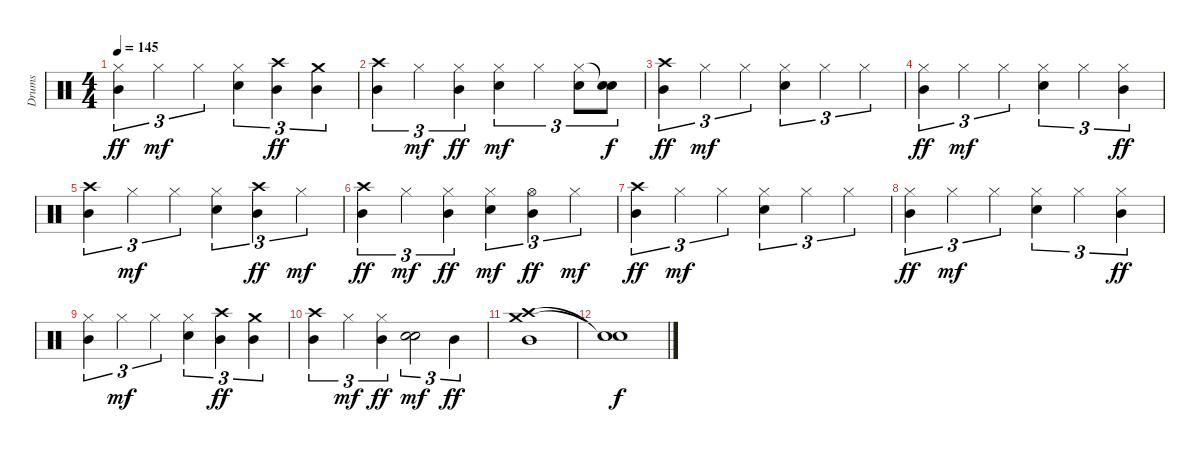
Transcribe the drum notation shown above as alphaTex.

\track ("Drums" "Drums") {instrument percussion}
\staff {score}
\articulation defaults
\ts (4 4)
\tempo 145
\clef neutral
\ks c
("Hi-Hat (closed)" "Mid Tom (hit)").4{tu (3 2) dy ff} "Hi-Hat (closed)".4{tu (3 2) dy mf} "Hi-Hat (closed)".4{tu (3 2)} ("Hi-Hat (closed)" "Electric Snare (hit)").4{tu (3 2)} ("Crash high (hit)" "Mid Tom (hit)").4{tu (3 2) dy ff} ("Crash medium (hit)" "Mid Tom (hit)").4{tu (3 2)} |
("Crash high (hit)" "Mid Tom (hit)").4{tu (3 2)} "Hi-Hat (closed)".4{tu (3 2) dy mf} ("Hi-Hat (closed)" "Mid Tom (hit)").4{tu (3 2) dy ff} ("Hi-Hat (closed)" "Electric Snare (hit)").4{tu (3 2) dy mf} "Hi-Hat (closed)".4{tu (3 2)} ("Hi-Hat (closed)" "Electric Snare (hit)").8{tu (3 2)} ("Snare (hit)"{t} "Electric Snare (hit)").8{tu (3 2) dy f} |
("Crash high (hit)" "Mid Tom (hit)").4{tu (3 2) dy ff} "Hi-Hat (closed)".4{tu (3 2) dy mf} "Hi-Hat (closed)".4{tu (3 2)} ("Hi-Hat (closed)" "Electric Snare (hit)").4{tu (3 2)} "Hi-Hat (closed)".4{tu (3 2)} "Hi-Hat (closed)".4{tu (3 2)} |
("Hi-Hat (closed)" "Mid Tom (hit)").4{tu (3 2) dy ff} "Hi-Hat (closed)".4{tu (3 2) dy mf} "Hi-Hat (closed)".4{tu (3 2)} ("Hi-Hat (closed)" "Electric Snare (hit)").4{tu (3 2)} "Hi-Hat (closed)".4{tu (3 2)} ("Hi-Hat (closed)" "Mid Tom (hit)").4{tu (3 2) dy ff} |
("Crash high (hit)" "Mid Tom (hit)").4{tu (3 2)} "Hi-Hat (closed)".4{tu (3 2) dy mf} "Hi-Hat (closed)".4{tu (3 2)} ("Hi-Hat (closed)" "Electric Snare (hit)").4{tu (3 2)} ("Crash high (hit)" "Mid Tom (hit)").4{tu (3 2) dy ff} "Hi-Hat (closed)".4{tu (3 2) dy mf} |
("Crash high (hit)" "Mid Tom (hit)").4{tu (3 2) dy ff} "Hi-Hat (closed)".4{tu (3 2) dy mf} ("Hi-Hat (closed)" "Mid Tom (hit)").4{tu (3 2) dy ff} ("Hi-Hat (closed)" "Electric Snare (hit)").4{tu (3 2) dy mf} ("Hi-Hat (open)" "Mid Tom (hit)").4{tu (3 2) dy ff} "Hi-Hat (closed)".4{tu (3 2) dy mf} |
("Crash high (hit)" "Mid Tom (hit)").4{tu (3 2) dy ff} "Hi-Hat (closed)".4{tu (3 2) dy mf} "Hi-Hat (closed)".4{tu (3 2)} ("Hi-Hat (closed)" "Electric Snare (hit)").4{tu (3 2)} "Hi-Hat (closed)".4{tu (3 2)} "Hi-Hat (closed)".4{tu (3 2)} |
("Hi-Hat (closed)" "Mid Tom (hit)").4{tu (3 2) dy ff} "Hi-Hat (closed)".4{tu (3 2) dy mf} "Hi-Hat (closed)".4{tu (3 2)} ("Hi-Hat (closed)" "Electric Snare (hit)").4{tu (3 2)} "Hi-Hat (closed)".4{tu (3 2)} ("Hi-Hat (closed)" "Mid Tom (hit)").4{tu (3 2) dy ff} |
("Hi-Hat (closed)" "Mid Tom (hit)").4{tu (3 2)} "Hi-Hat (closed)".4{tu (3 2) dy mf} "Hi-Hat (closed)".4{tu (3 2)} ("Hi-Hat (closed)" "Electric Snare (hit)").4{tu (3 2)} ("Crash high (hit)" "Mid Tom (hit)").4{tu (3 2) dy ff} ("Crash medium (hit)" "Mid Tom (hit)").4{tu (3 2)} |
("Crash high (hit)" "Mid Tom (hit)").4{tu (3 2)} "Hi-Hat (closed)".4{tu (3 2) dy mf} ("Hi-Hat (closed)" "Mid Tom (hit)").4{tu (3 2) dy ff} ("Electric Snare (hit)" "Electric Snare (hit)").2{tu (3 2) bd 240 dy mf} "Mid Tom (hit)".4{tu (3 2) dy ff} |
("Crash high (hit)" "Crash medium (hit)" "Mid Tom (hit)").1 |
("Snare (hit)"{t} "Snare (hit)"{t}).1{dy f}
